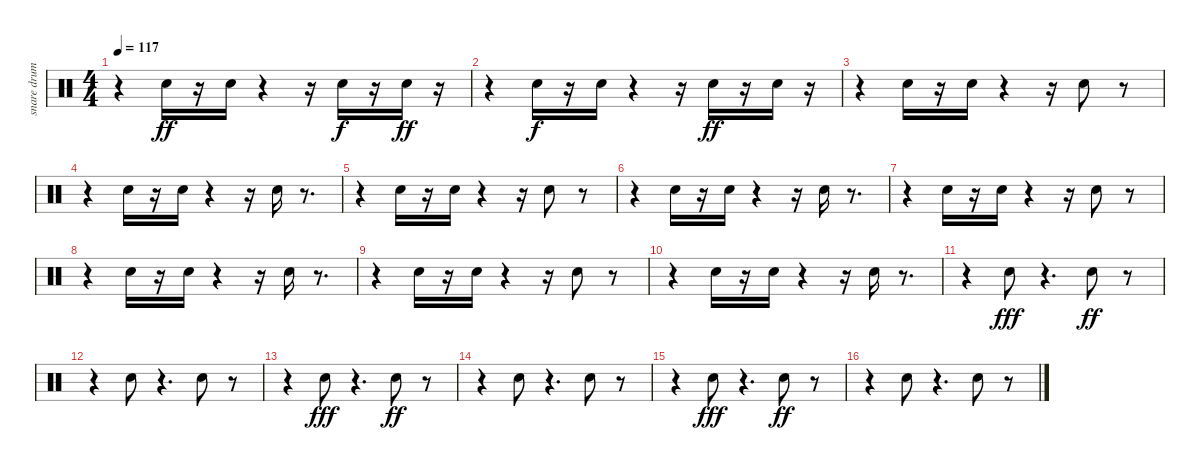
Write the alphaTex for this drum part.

\track ("snare drum" "snare drum") {instrument percussion}
\staff {score}
\articulation defaults
\ts (4 4)
\tempo 117
\clef neutral
\ks c
r.4{dy ff} "Snare (hit) 2".16 r.16 "Snare (hit) 2".16 r.4 r.16 "Snare (hit) 2".16{dy f} r.16 "Snare (hit) 2".16{dy ff} r.16 |
r.4 "Snare (hit) 2".16{dy f} r.16 "Snare (hit) 2".16 r.4 r.16 "Snare (hit) 2".16{dy ff} r.16 "Snare (hit) 2".16 r.16 |
r.4 "Snare (hit) 2".16 r.16 "Snare (hit) 2".16 r.4 r.16 "Snare (hit) 2".8 r.8 |
r.4 "Snare (hit) 2".16 r.16 "Snare (hit) 2".16 r.4 r.16 "Snare (hit) 2".16 r.8{d} |
r.4 "Snare (hit) 2".16 r.16 "Snare (hit) 2".16 r.4 r.16 "Snare (hit) 2".8 r.8 |
r.4 "Snare (hit) 2".16 r.16 "Snare (hit) 2".16 r.4 r.16 "Snare (hit) 2".16 r.8{d} |
r.4 "Snare (hit) 2".16 r.16 "Snare (hit) 2".16 r.4 r.16 "Snare (hit) 2".8 r.8 |
r.4 "Snare (hit) 2".16 r.16 "Snare (hit) 2".16 r.4 r.16 "Snare (hit) 2".16 r.8{d} |
r.4 "Snare (hit) 2".16 r.16 "Snare (hit) 2".16 r.4 r.16 "Snare (hit) 2".8 r.8 |
r.4 "Snare (hit) 2".16 r.16 "Snare (hit) 2".16 r.4 r.16 "Snare (hit) 2".16 r.8{d} |
r.4 "Snare (hit) 2".8{dy fff} r.4{d} "Snare (hit) 2".8{dy ff} r.8 |
r.4 "Snare (hit) 2".8 r.4{d} "Snare (hit) 2".8 r.8 |
r.4 "Snare (hit) 2".8{dy fff} r.4{d} "Snare (hit) 2".8{dy ff} r.8 |
r.4 "Snare (hit) 2".8 r.4{d} "Snare (hit) 2".8 r.8 |
r.4 "Snare (hit) 2".8{dy fff} r.4{d} "Snare (hit) 2".8{dy ff} r.8 |
r.4 "Snare (hit) 2".8 r.4{d} "Snare (hit) 2".8 r.8
